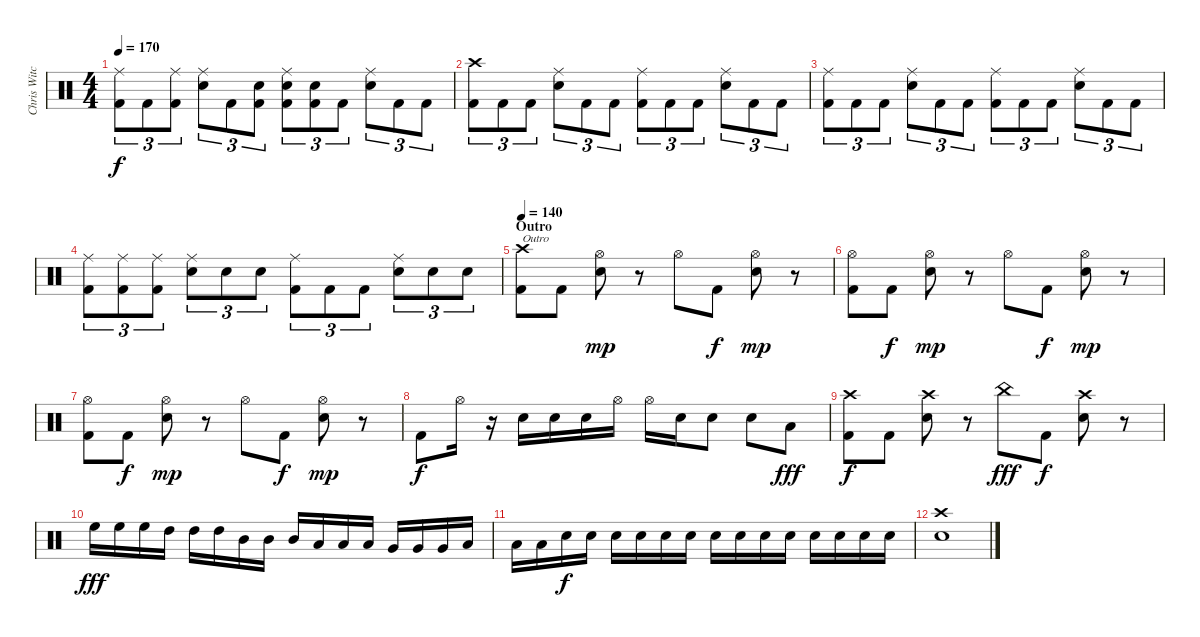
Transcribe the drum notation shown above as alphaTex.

\track ("Chris Witchhunter" "Chris Witc") {instrument percussion}
\staff {score}
\articulation defaults
\ts (4 4)
\tempo 170
\clef neutral
\ks c
("Ride (middle)" "Kick (hit) 2").8{tu (3 2) dy f} "Kick (hit) 2".8{tu (3 2)} ("Ride (middle)" "Kick (hit) 2").8{tu (3 2)} ("Ride (middle)" "Electric Snare (hit)").8{tu (3 2)} "Kick (hit) 2".8{tu (3 2)} ("Electric Snare (hit)" "Kick (hit) 2").8{tu (3 2)} ("Ride (middle)" "Snare (hit) 2" "Kick (hit) 2").8{tu (3 2)} ("Electric Snare (hit)" "Kick (hit) 2").8{tu (3 2)} "Kick (hit) 2".8{tu (3 2)} ("Ride (middle)" "Electric Snare (hit)").8{tu (3 2)} "Kick (hit) 2".8{tu (3 2)} "Kick (hit) 2".8{tu (3 2)} |
("Crash high (hit)" "Kick (hit) 2").8{tu (3 2)} "Kick (hit) 2".8{tu (3 2)} "Kick (hit) 2".8{tu (3 2)} ("Ride (middle)" "Electric Snare (hit)").8{tu (3 2)} "Kick (hit) 2".8{tu (3 2)} "Kick (hit) 2".8{tu (3 2)} ("Ride (middle)" "Kick (hit) 2").8{tu (3 2)} "Kick (hit) 2".8{tu (3 2)} "Kick (hit) 2".8{tu (3 2)} ("Ride (middle)" "Electric Snare (hit)").8{tu (3 2)} "Kick (hit) 2".8{tu (3 2)} "Kick (hit) 2".8{tu (3 2)} |
("Ride (middle)" "Kick (hit) 2").8{tu (3 2)} "Kick (hit) 2".8{tu (3 2)} "Kick (hit) 2".8{tu (3 2)} ("Ride (middle)" "Electric Snare (hit)").8{tu (3 2)} "Kick (hit) 2".8{tu (3 2)} "Kick (hit) 2".8{tu (3 2)} ("Ride (middle)" "Kick (hit) 2").8{tu (3 2)} "Kick (hit) 2".8{tu (3 2)} "Kick (hit) 2".8{tu (3 2)} ("Ride (middle)" "Electric Snare (hit)").8{tu (3 2)} "Kick (hit) 2".8{tu (3 2)} "Kick (hit) 2".8{tu (3 2)} |
("Ride (middle)" "Kick (hit) 2").8{tu (3 2)} ("Ride (middle)" "Kick (hit) 2").8{tu (3 2)} ("Ride (middle)" "Kick (hit) 2").8{tu (3 2)} ("Ride (middle)" "Electric Snare (hit)").8{tu (3 2)} "Snare (hit) 2".8{tu (3 2)} "Electric Snare (hit)".8{tu (3 2)} ("Ride (middle)" "Kick (hit) 2").8{tu (3 2)} "Kick (hit) 2".8{tu (3 2)} "Kick (hit) 2".8{tu (3 2)} ("Ride (middle)" "Electric Snare (hit)").8{tu (3 2)} "Snare (hit) 2".8{tu (3 2)} "Electric Snare (hit)".8{tu (3 2)} |
\section ("" "Outro")
\tempo 140
("Crash high (hit)" "Kick (hit) 2").8{txt "Outro"} "Kick (hit) 2".8 ("Hi-Hat (open)" "Electric Snare (hit)").8{dy mp} r.8 "Hi-Hat (open)".8 "Kick (hit) 2".8{dy f} ("Hi-Hat (open)" "Electric Snare (hit)").8{dy mp} r.8 |
("Hi-Hat (open)" "Kick (hit) 2").8 "Kick (hit) 2".8{dy f} ("Hi-Hat (open)" "Electric Snare (hit)").8{dy mp} r.8 "Hi-Hat (open)".8 "Kick (hit) 2".8{dy f} ("Hi-Hat (open)" "Electric Snare (hit)").8{dy mp} r.8 |
("Hi-Hat (open)" "Kick (hit) 2").8 "Kick (hit) 2".8{dy f} ("Hi-Hat (open)" "Electric Snare (hit)").8{dy mp} r.8 "Hi-Hat (open)".8 "Kick (hit) 2".8{dy f} ("Hi-Hat (open)" "Electric Snare (hit)").8{dy mp} r.8 |
"Kick (hit) 2".8{dy f} "Hi-Hat (open)".16 r.16 "Electric Snare (hit)".16 "Electric Snare (hit)".16 "Electric Snare (hit)".16 "Hi-Hat (open)".16 "Hi-Hat (open)".16 "Electric Snare (hit)".16 "Electric Snare (hit)".8 "Electric Snare (hit)".8 "Low Tom (hit)".8{dy fff} |
("Crash high (hit)" "Kick (hit) 2").8{dy f} "Kick (hit) 2".8 ("Crash high (hit)" "Electric Snare (hit)").8 r.8 "China (hit)".8{dy fff} "Kick (hit) 2".8{dy f} ("Crash high (hit)" "Electric Snare (hit)").8 r.8 |
"High Floor Tom (hit)".16{dy fff} "High Floor Tom (hit)".16 "High Floor Tom (hit)".16 "High Tom (hit)".16 "High Tom (hit)".16 "High Tom (hit)".16 "Mid Tom (hit)".16 "Mid Tom (hit)".16 "Mid Tom (hit)".16 "Low Tom (hit)".16 "Low Tom (hit)".16 "Low Tom (hit)".16 "Very Low Tom (hit)".16 "Very Low Tom (hit)".16 "Very Low Tom (hit)".16 "Low Floor Tom (hit)".16 |
"Low Floor Tom (hit)".16 "Low Floor Tom (hit)".16 "Electric Snare (hit)".16{dy f} "Electric Snare (hit)".16 "Electric Snare (hit)".16 "Electric Snare (hit)".16 "Electric Snare (hit)".16 "Electric Snare (hit)".16 "Electric Snare (hit)".16 "Electric Snare (hit)".16 "Electric Snare (hit)".16 "Electric Snare (hit)".16 "Electric Snare (hit)".16 "Electric Snare (hit)".16 "Electric Snare (hit)".16 "Electric Snare (hit)".16 |
("Crash high (hit)" "Electric Snare (hit)").1
